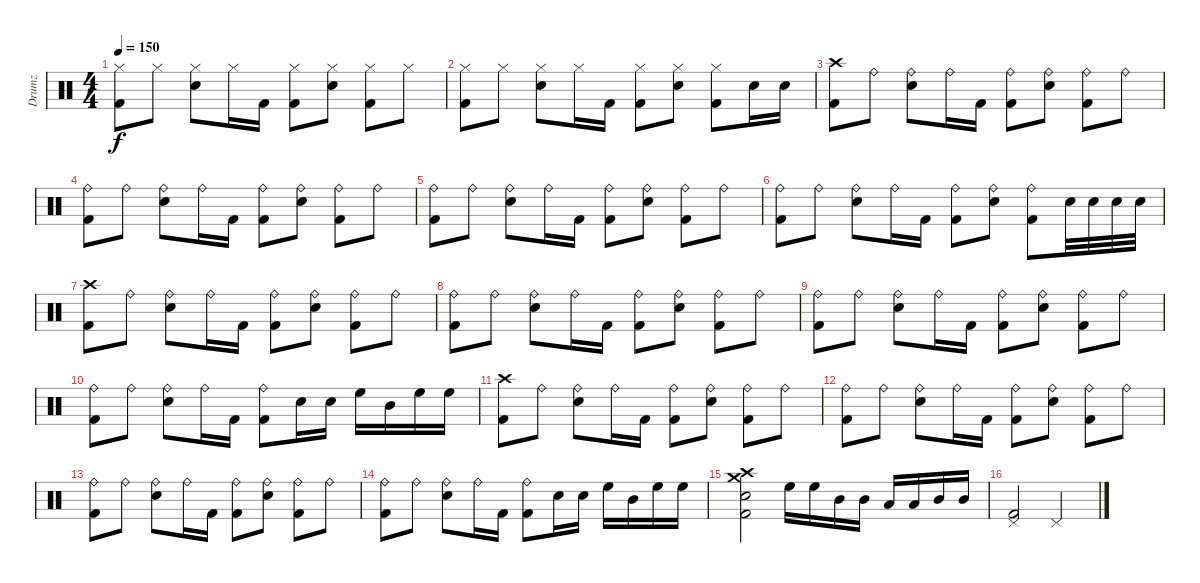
\track ("Drumz" "Drumz") {instrument percussion}
\staff {score}
\articulation defaults
\ts (4 4)
\tempo 150
\clef neutral
\ks c
("Hi-Hat (closed)" "Kick (hit) 2").8{dy f} "Hi-Hat (closed)".8 ("Hi-Hat (closed)" "Snare (hit) 2").8 "Hi-Hat (closed)".16 "Kick (hit) 2".16 ("Hi-Hat (closed)" "Kick (hit) 2").8 ("Hi-Hat (closed)" "Snare (hit) 2").8 ("Hi-Hat (closed)" "Kick (hit) 2").8 "Hi-Hat (closed)".8 |
("Hi-Hat (closed)" "Kick (hit) 2").8 "Hi-Hat (closed)".8 ("Hi-Hat (closed)" "Snare (hit) 2").8 "Hi-Hat (closed)".16 "Kick (hit) 2".16 ("Hi-Hat (closed)" "Kick (hit) 2").8 ("Hi-Hat (closed)" "Snare (hit) 2").8 ("Hi-Hat (closed)" "Kick (hit) 2").8 "Snare (hit) 2".16 "Snare (hit) 2".16 |
("Crash high (hit)" "Kick (hit) 2").8 "Ride (bell)".8 ("Ride (bell)" "Snare (hit) 2").8 "Ride (bell)".16 "Kick (hit) 2".16 ("Ride (bell)" "Kick (hit) 2").8 ("Ride (bell)" "Snare (hit) 2").8 ("Ride (bell)" "Kick (hit) 2").8 "Ride (bell)".8 |
("Ride (bell)" "Kick (hit) 2").8 "Ride (bell)".8 ("Ride (bell)" "Snare (hit) 2").8 "Ride (bell)".16 "Kick (hit) 2".16 ("Ride (bell)" "Kick (hit) 2").8 ("Ride (bell)" "Snare (hit) 2").8 ("Ride (bell)" "Kick (hit) 2").8 "Ride (bell)".8 |
("Ride (bell)" "Kick (hit) 2").8 "Ride (bell)".8 ("Ride (bell)" "Snare (hit) 2").8 "Ride (bell)".16 "Kick (hit) 2".16 ("Ride (bell)" "Kick (hit) 2").8 ("Ride (bell)" "Snare (hit) 2").8 ("Ride (bell)" "Kick (hit) 2").8 "Ride (bell)".8 |
("Ride (bell)" "Kick (hit) 2").8 "Ride (bell)".8 ("Ride (bell)" "Snare (hit) 2").8 "Ride (bell)".16 "Kick (hit) 2".16 ("Ride (bell)" "Kick (hit) 2").8 ("Ride (bell)" "Snare (hit) 2").8 ("Ride (bell)" "Kick (hit) 2").8 "Snare (hit) 2".32 "Snare (hit) 2".32 "Snare (hit) 2".32 "Snare (hit) 2".32 |
("Crash high (hit)" "Kick (hit) 2").8 "Ride (bell)".8 ("Ride (bell)" "Snare (hit) 2").8 "Ride (bell)".16 "Kick (hit) 2".16 ("Ride (bell)" "Kick (hit) 2").8 ("Ride (bell)" "Snare (hit) 2").8 ("Ride (bell)" "Kick (hit) 2").8 "Ride (bell)".8 |
("Ride (bell)" "Kick (hit) 2").8 "Ride (bell)".8 ("Ride (bell)" "Snare (hit) 2").8 "Ride (bell)".16 "Kick (hit) 2".16 ("Ride (bell)" "Kick (hit) 2").8 ("Ride (bell)" "Snare (hit) 2").8 ("Ride (bell)" "Kick (hit) 2").8 "Ride (bell)".8 |
("Ride (bell)" "Kick (hit) 2").8 "Ride (bell)".8 ("Ride (bell)" "Snare (hit) 2").8 "Ride (bell)".16 "Kick (hit) 2".16 ("Ride (bell)" "Kick (hit) 2").8 ("Ride (bell)" "Snare (hit) 2").8 ("Ride (bell)" "Kick (hit) 2").8 "Ride (bell)".8 |
("Ride (bell)" "Kick (hit) 2").8 "Ride (bell)".8 ("Ride (bell)" "Snare (hit) 2").8 "Ride (bell)".16 "Kick (hit) 2".16 ("Ride (bell)" "Kick (hit) 2").8 "Snare (hit) 2".16 "Snare (hit) 2".16 "High Floor Tom (hit)".16 "Mid Tom (hit)".16 "High Floor Tom (hit)".16 "High Floor Tom (hit)".16 |
("Crash high (hit)" "Kick (hit) 2").8 "Ride (bell)".8 ("Ride (bell)" "Snare (hit) 2").8 "Ride (bell)".16 "Kick (hit) 2".16 ("Ride (bell)" "Kick (hit) 2").8 ("Ride (bell)" "Snare (hit) 2").8 ("Ride (bell)" "Kick (hit) 2").8 "Ride (bell)".8 |
("Ride (bell)" "Kick (hit) 2").8 "Ride (bell)".8 ("Ride (bell)" "Snare (hit) 2").8 "Ride (bell)".16 "Kick (hit) 2".16 ("Ride (bell)" "Kick (hit) 2").8 ("Ride (bell)" "Snare (hit) 2").8 ("Ride (bell)" "Kick (hit) 2").8 "Ride (bell)".8 |
("Ride (bell)" "Kick (hit) 2").8 "Ride (bell)".8 ("Ride (bell)" "Snare (hit) 2").8 "Ride (bell)".16 "Kick (hit) 2".16 ("Ride (bell)" "Kick (hit) 2").8 ("Ride (bell)" "Snare (hit) 2").8 ("Ride (bell)" "Kick (hit) 2").8 "Ride (bell)".8 |
("Ride (bell)" "Kick (hit) 2").8 "Ride (bell)".8 ("Ride (bell)" "Snare (hit) 2").8 "Ride (bell)".16 "Kick (hit) 2".16 ("Ride (bell)" "Kick (hit) 2").8 "Snare (hit) 2".16 "Snare (hit) 2".16 "High Floor Tom (hit)".16 "Mid Tom (hit)".16 "High Floor Tom (hit)".16 "High Floor Tom (hit)".16 |
("Crash high (hit)" "Crash medium (hit)" "Snare (hit) 2" "Kick (hit) 2").2 "High Floor Tom (hit)".16 "High Floor Tom (hit)".16 "Mid Tom (hit)".16 "Mid Tom (hit)".16 "Low Floor Tom (hit)".16 "Low Floor Tom (hit)".16 "Mid Tom (hit)".16 "Mid Tom (hit)".16 |
("Pedal Hi-Hat (hit)" "Kick (hit) 2").2 "Pedal Hi-Hat (hit)".2
